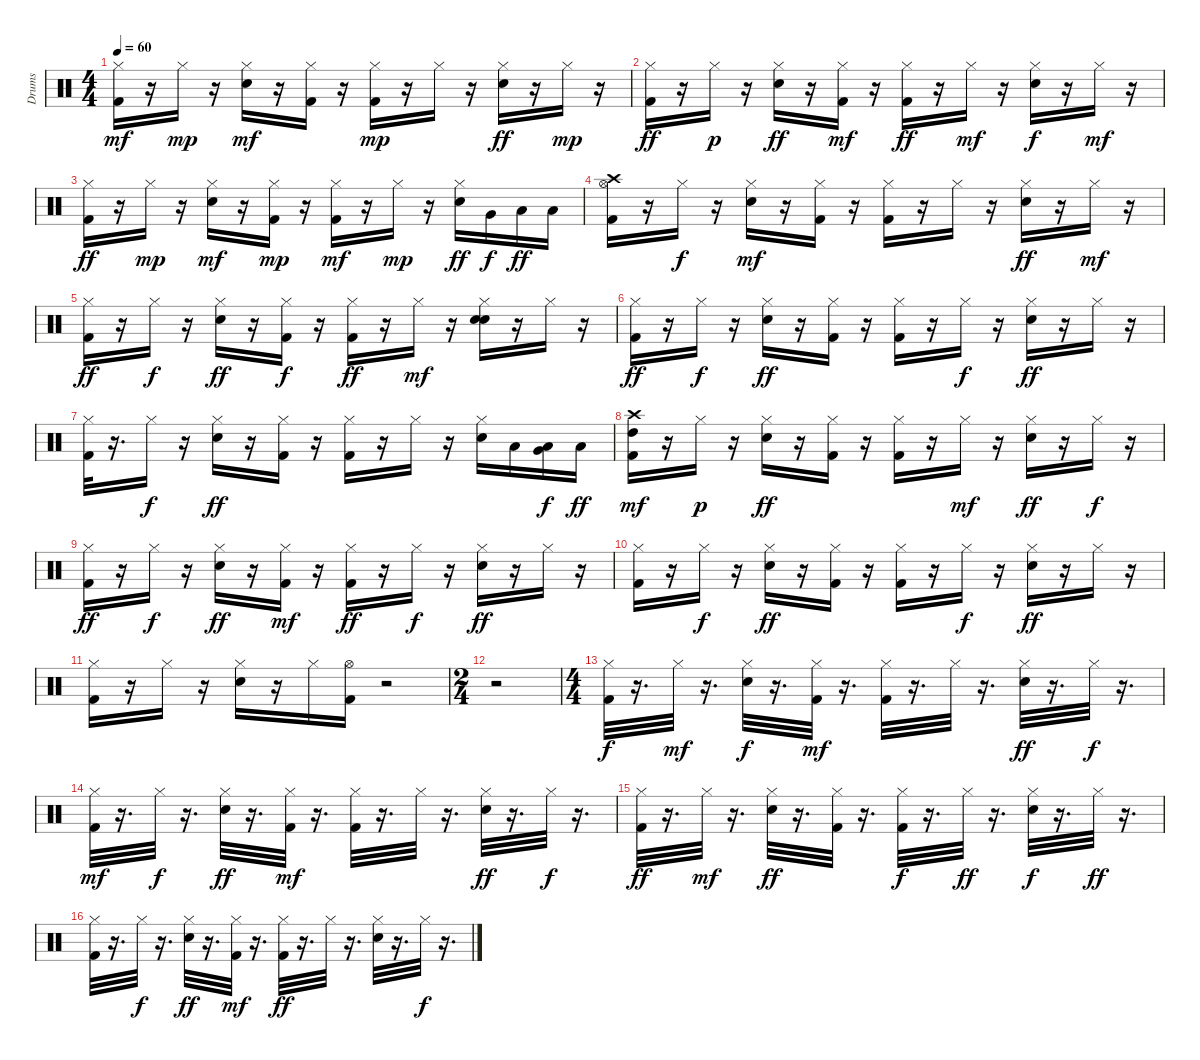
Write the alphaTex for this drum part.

\track ("Drums" "Drums") {instrument percussion}
\staff {score}
\articulation defaults
\ts (4 4)
\tempo 60
\clef neutral
\ks c
("Kick (hit) 2" "Hi-Hat (closed)").16{dy mf} r.16 "Hi-Hat (closed)".16{dy mp} r.16 ("Hi-Hat (closed)" "Electric Snare (hit)").16{dy mf} r.16 ("Hi-Hat (closed)" "Kick (hit) 2").16 r.16 ("Kick (hit) 2" "Hi-Hat (closed)").16{dy mp} r.16 "Hi-Hat (closed)".16 r.16 ("Hi-Hat (closed)" "Electric Snare (hit)").16{dy ff} r.16 "Hi-Hat (closed)".16{dy mp} r.16 |
("Hi-Hat (closed)" "Kick (hit) 2").16{dy ff} r.16 "Hi-Hat (closed)".16{dy p} r.16 ("Hi-Hat (closed)" "Electric Snare (hit)").16{dy ff} r.16 ("Hi-Hat (closed)" "Kick (hit) 2").16{dy mf} r.16 ("Hi-Hat (closed)" "Kick (hit) 2").16{dy ff} r.16 "Hi-Hat (closed)".16{dy mf} r.16 ("Hi-Hat (closed)" "Electric Snare (hit)").16{dy f} r.16 "Hi-Hat (closed)".16{dy mf} r.16 |
("Kick (hit) 2" "Hi-Hat (closed)").16{dy ff} r.16 "Hi-Hat (closed)".16{dy mp} r.16 ("Hi-Hat (closed)" "Electric Snare (hit)").16{dy mf} r.16 ("Kick (hit) 2" "Hi-Hat (closed)").16{dy mp} r.16 ("Kick (hit) 2" "Hi-Hat (closed)").16{dy mf} r.16 "Hi-Hat (closed)".16{dy mp} r.16 ("Hi-Hat (closed)" "Electric Snare (hit)").16{dy ff} "Very Low Tom (hit)".16{dy f} "Low Tom (hit)".16{dy ff} "Low Floor Tom (hit)".16 |
("Kick (hit) 2" "Hi-Hat (open)" "Crash high (hit)").16 r.16 "Hi-Hat (closed)".16{dy f} r.16 ("Hi-Hat (closed)" "Snare (hit) 2").16{dy mf} r.16 ("Hi-Hat (closed)" "Kick (hit) 2").16 r.16 ("Hi-Hat (closed)" "Kick (hit) 2").16 r.16 "Hi-Hat (closed)".16 r.16 ("Hi-Hat (closed)" "Snare (hit) 2").16{dy ff} r.16 "Hi-Hat (closed)".16{dy mf} r.16 |
("Hi-Hat (closed)" "Kick (hit) 2").16{dy ff} r.16 "Hi-Hat (closed)".16{dy f} r.16 ("Hi-Hat (closed)" "Snare (hit) 2").16{dy ff} r.16 ("Kick (hit) 2" "Hi-Hat (closed)").16{dy f} r.16 ("Kick (hit) 2" "Hi-Hat (closed)").16{dy ff} r.16 "Hi-Hat (closed)".16{dy mf} r.16 ("Hi-Hat (closed)" "Snare (hit) 2" "Electric Snare (hit)").16 r.16 "Hi-Hat (closed)".16 r.16 |
("Hi-Hat (closed)" "Kick (hit) 2").16{dy ff} r.16 "Hi-Hat (closed)".16{dy f} r.16 ("Hi-Hat (closed)" "Snare (hit) 2").16{dy ff} r.16 ("Hi-Hat (closed)" "Kick (hit) 2").16 r.16 ("Hi-Hat (closed)" "Kick (hit) 2").16 r.16 "Hi-Hat (closed)".16{dy f} r.16 ("Hi-Hat (closed)" "Snare (hit) 2").16{dy ff} r.16 "Hi-Hat (closed)".16 r.16 |
("Kick (hit) 2" "Hi-Hat (closed)").32 r.16{d} "Hi-Hat (closed)".16{dy f} r.16 ("Hi-Hat (closed)" "Snare (hit) 2").16{dy ff} r.16 ("Hi-Hat (closed)" "Kick (hit) 2").16 r.16 ("Hi-Hat (closed)" "Kick (hit) 2").16 r.16 "Hi-Hat (closed)".16 r.16 ("Hi-Hat (closed)" "Snare (hit) 2").16 "Low Tom (hit)".16 ("Low Tom (hit)" "Very Low Tom (hit)").16{dy f} "Low Floor Tom (hit)".16{dy ff} |
("Crash high (hit)" "Kick (hit) 2" "High Tom (hit)").16{dy mf} r.16 "Hi-Hat (closed)".16{dy p} r.16 ("Snare (hit) 2" "Hi-Hat (closed)").16{dy ff} r.16 ("Hi-Hat (closed)" "Kick (hit) 2").16 r.16 ("Hi-Hat (closed)" "Kick (hit) 2").16 r.16 "Hi-Hat (closed)".16{dy mf} r.16 ("Hi-Hat (closed)" "Snare (hit) 2").16{dy ff} r.16 "Hi-Hat (closed)".16{dy f} r.16 |
("Hi-Hat (closed)" "Kick (hit) 2").16{dy ff} r.16 "Hi-Hat (closed)".16{dy f} r.16 ("Hi-Hat (closed)" "Snare (hit) 2").16{dy ff} r.16 ("Hi-Hat (closed)" "Kick (hit) 2").16{dy mf} r.16 ("Hi-Hat (closed)" "Kick (hit) 2").16{dy ff} r.16 "Hi-Hat (closed)".16{dy f} r.16 ("Hi-Hat (closed)" "Snare (hit) 2").16{dy ff} r.16 "Hi-Hat (closed)".16 r.16 |
("Hi-Hat (closed)" "Kick (hit) 2").16 r.16 "Hi-Hat (closed)".16{dy f} r.16 ("Snare (hit) 2" "Hi-Hat (closed)").16{dy ff} r.16 ("Hi-Hat (closed)" "Kick (hit) 2").16 r.16 ("Kick (hit) 2" "Hi-Hat (closed)").16 r.16 "Hi-Hat (closed)".16{dy f} r.16 ("Hi-Hat (closed)" "Snare (hit) 2").16{dy ff} r.16 "Hi-Hat (closed)".16 r.16 |
("Hi-Hat (closed)" "Kick (hit) 2").16 r.16 "Hi-Hat (closed)".16 r.16 ("Hi-Hat (closed)" "Snare (hit) 2").16 r.16 "Hi-Hat (closed)".16 ("Hi-Hat (open)" "Kick (hit) 2").16 r.2 |
\ts (2 4)
r.2 |
\ts (4 4)
("Hi-Hat (closed)" "Kick (hit) 2").32{dy f} r.16{d} "Hi-Hat (closed)".32{dy mf} r.16{d} ("Hi-Hat (closed)" "Electric Snare (hit)").32{dy f} r.16{d} ("Kick (hit) 2" "Hi-Hat (closed)").32{dy mf} r.16{d} ("Kick (hit) 2" "Hi-Hat (closed)").32 r.16{d} "Hi-Hat (closed)".32 r.16{d} ("Hi-Hat (closed)" "Electric Snare (hit)").32{dy ff} r.16{d} "Hi-Hat (closed)".32{dy f} r.16{d} |
("Hi-Hat (closed)" "Kick (hit) 2").32{dy mf} r.16{d} "Hi-Hat (closed)".32{dy f} r.16{d} ("Hi-Hat (closed)" "Electric Snare (hit)").32{dy ff} r.16{d} ("Hi-Hat (closed)" "Kick (hit) 2").32{dy mf} r.16{d} ("Kick (hit) 2" "Hi-Hat (closed)").32 r.16{d} "Hi-Hat (closed)".32 r.16{d} ("Hi-Hat (closed)" "Electric Snare (hit)").32{dy ff} r.16{d} "Hi-Hat (closed)".32{dy f} r.16{d} |
("Hi-Hat (closed)" "Kick (hit) 2").32{dy ff} r.16{d} "Hi-Hat (closed)".32{dy mf} r.16{d} ("Electric Snare (hit)" "Hi-Hat (closed)").32{dy ff} r.16{d} ("Hi-Hat (closed)" "Kick (hit) 2").32 r.16{d} ("Hi-Hat (closed)" "Kick (hit) 2").32{dy f} r.16{d} "Hi-Hat (closed)".32{dy ff} r.16{d} ("Hi-Hat (closed)" "Electric Snare (hit)").32{dy f} r.16{d} "Hi-Hat (closed)".32{dy ff} r.16{d} |
("Hi-Hat (closed)" "Kick (hit) 2").32 r.16{d} "Hi-Hat (closed)".32{dy f} r.16{d} ("Electric Snare (hit)" "Hi-Hat (closed)").32{dy ff} r.16{d} ("Kick (hit) 2" "Hi-Hat (closed)").32{dy mf} r.16{d} ("Kick (hit) 2" "Hi-Hat (closed)").32{dy ff} r.16{d} "Hi-Hat (closed)".32 r.16{d} ("Hi-Hat (closed)" "Electric Snare (hit)").32 r.16{d} "Hi-Hat (closed)".32{dy f} r.16{d}
